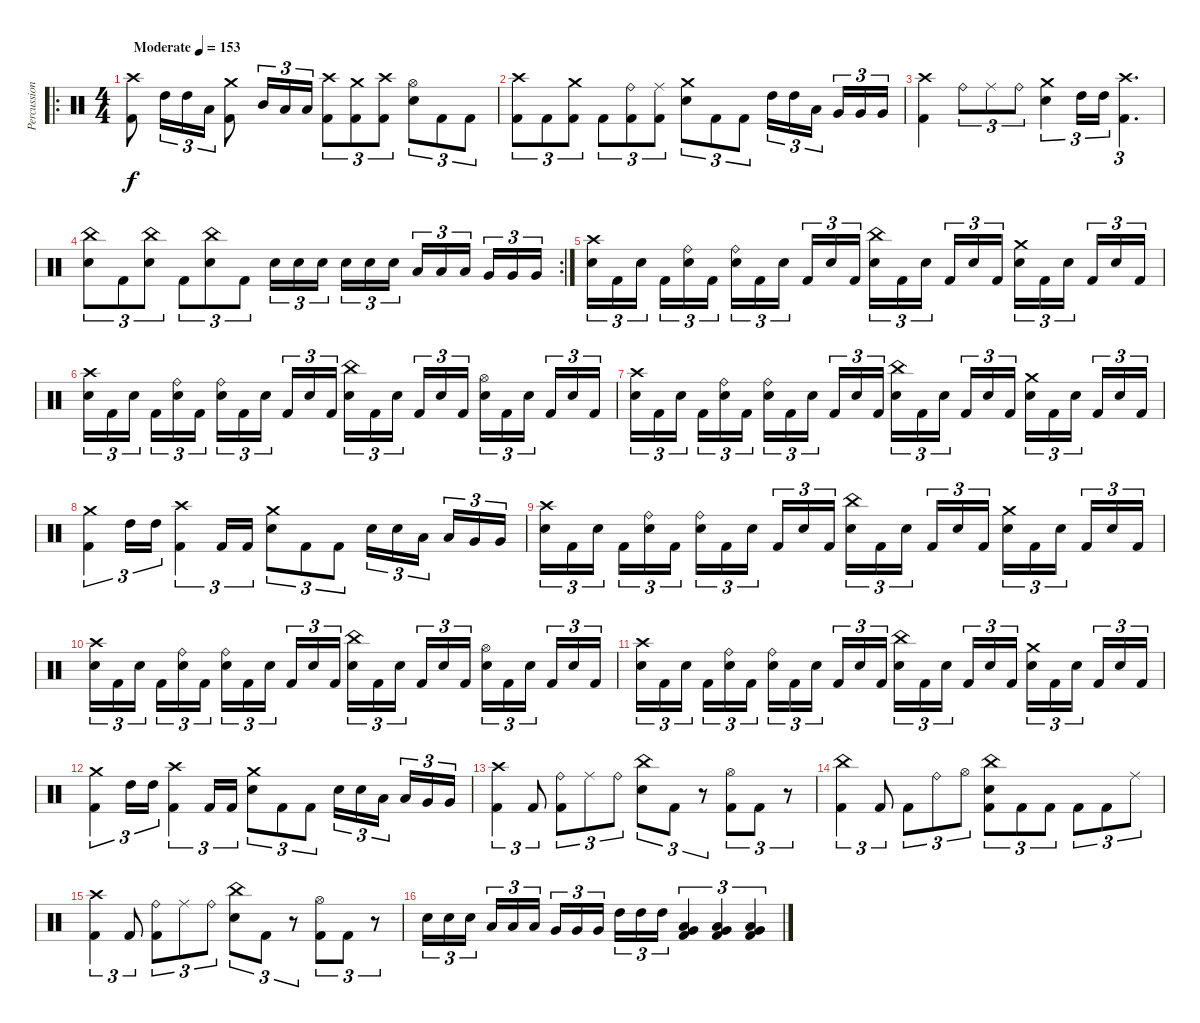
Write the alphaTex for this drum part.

\track ("Percussion" "Percussion") {instrument percussion}
\staff {score}
\articulation defaults
\ro
\ts (4 4)
\tempo (153 "Moderate")
\clef neutral
\ks c
("Crash high (hit)" "Kick (hit) 2").8{dy f} "High Tom (hit)".16{tu (3 2)} "High Tom (hit)".16{tu (3 2)} "Low Tom (hit)".16{tu (3 2)} ("Crash medium (hit)" "Kick (hit) 2").8 "Mid Tom (hit)".16{tu (3 2)} "Low Tom (hit)".16{tu (3 2)} "Low Tom (hit)".16{tu (3 2)} ("Crash high (hit)" "Kick (hit) 2").8{tu (3 2)} ("Crash medium (hit)" "Kick (hit) 2").8{tu (3 2)} ("Crash high (hit)" "Kick (hit) 2").8{tu (3 2)} ("Hi-Hat (open)" "Snare (hit) 2").8{tu (3 2)} "Kick (hit) 2".8{tu (3 2)} "Kick (hit) 2".8{tu (3 2)} |
("Crash high (hit)" "Kick (hit) 2").8{tu (3 2)} "Kick (hit) 2".8{tu (3 2)} ("Crash medium (hit)" "Kick (hit) 2").8{tu (3 2)} "Kick (hit) 2".8{tu (3 2)} ("Ride (bell)" "Kick (hit) 2").8{tu (3 2)} ("Ride (middle)" "Kick (hit) 2").8{tu (3 2)} ("Crash medium (hit)" "Snare (hit) 2").8{tu (3 2)} "Kick (hit) 2".8{tu (3 2)} "Kick (hit) 2".8{tu (3 2)} "High Tom (hit)".16{tu (3 2)} "High Tom (hit)".16{tu (3 2)} "Low Tom (hit)".16{tu (3 2) beam splitsecondary} "Very Low Tom (hit)".16{tu (3 2)} "Very Low Tom (hit)".16{tu (3 2)} "Very Low Tom (hit)".16{tu (3 2)} |
("Crash high (hit)" "Kick (hit) 2").4 "Ride (bell)".8{tu (3 2)} "Ride (middle)".8{tu (3 2)} "Ride (bell)".8{tu (3 2)} ("Crash medium (hit)" "Snare (hit) 2").4{tu (3 2)} "High Tom (hit)".16{tu (3 2)} "High Tom (hit)".16{tu (3 2)} ("Crash high (hit)" "Kick (hit) 2").4{d tu (3 2)} |
\rc 2
("China (hit)" "Snare (hit) 2").8{tu (3 2)} "Kick (hit) 2".8{tu (3 2)} ("China (hit)" "Snare (hit) 2").8{tu (3 2)} "Kick (hit) 2".8{tu (3 2)} ("China (hit)" "Snare (hit) 2").8{tu (3 2)} "Kick (hit) 2".8{tu (3 2)} "Snare (hit) 2".16{tu (3 2)} "Snare (hit) 2".16{tu (3 2)} "Snare (hit) 2".16{tu (3 2) beam splitsecondary} "Snare (hit) 2".16{tu (3 2)} "Snare (hit) 2".16{tu (3 2)} "Snare (hit) 2".16{tu (3 2)} "Low Tom (hit)".16{tu (3 2)} "Low Tom (hit)".16{tu (3 2)} "Low Tom (hit)".16{tu (3 2) beam splitsecondary} "Very Low Tom (hit)".16{tu (3 2)} "Very Low Tom (hit)".16{tu (3 2)} "Very Low Tom (hit)".16{tu (3 2)} |
("Crash high (hit)" "Snare (hit) 2").16{tu (3 2)} "Kick (hit) 2".16{tu (3 2)} "Snare (hit) 2".16{tu (3 2) beam splitsecondary} "Kick (hit) 2".16{tu (3 2)} ("Ride (bell)" "Snare (hit) 2").16{tu (3 2)} "Kick (hit) 2".16{tu (3 2)} ("Ride (bell)" "Snare (hit) 2").16{tu (3 2)} "Kick (hit) 2".16{tu (3 2)} "Snare (hit) 2".16{tu (3 2) beam splitsecondary} "Kick (hit) 2".16{tu (3 2)} "Snare (hit) 2".16{tu (3 2)} "Kick (hit) 2".16{tu (3 2)} ("China (hit)" "Snare (hit) 2").16{tu (3 2)} "Kick (hit) 2".16{tu (3 2)} "Snare (hit) 2".16{tu (3 2) beam splitsecondary} "Kick (hit) 2".16{tu (3 2)} "Snare (hit) 2".16{tu (3 2)} "Kick (hit) 2".16{tu (3 2)} ("Crash medium (hit)" "Snare (hit) 2").16{tu (3 2)} "Kick (hit) 2".16{tu (3 2)} "Snare (hit) 2".16{tu (3 2) beam splitsecondary} "Kick (hit) 2".16{tu (3 2)} "Snare (hit) 2".16{tu (3 2)} "Kick (hit) 2".16{tu (3 2)} |
("Crash high (hit)" "Snare (hit) 2").16{tu (3 2)} "Kick (hit) 2".16{tu (3 2)} "Snare (hit) 2".16{tu (3 2) beam splitsecondary} "Kick (hit) 2".16{tu (3 2)} ("Ride (bell)" "Snare (hit) 2").16{tu (3 2)} "Kick (hit) 2".16{tu (3 2)} ("Ride (bell)" "Snare (hit) 2").16{tu (3 2)} "Kick (hit) 2".16{tu (3 2)} "Snare (hit) 2".16{tu (3 2) beam splitsecondary} "Kick (hit) 2".16{tu (3 2)} "Snare (hit) 2".16{tu (3 2)} "Kick (hit) 2".16{tu (3 2)} ("China (hit)" "Snare (hit) 2").16{tu (3 2)} "Kick (hit) 2".16{tu (3 2)} "Snare (hit) 2".16{tu (3 2) beam splitsecondary} "Kick (hit) 2".16{tu (3 2)} "Snare (hit) 2".16{tu (3 2)} "Kick (hit) 2".16{tu (3 2)} ("Hi-Hat (open)" "Snare (hit) 2").16{tu (3 2)} "Kick (hit) 2".16{tu (3 2)} "Snare (hit) 2".16{tu (3 2) beam splitsecondary} "Kick (hit) 2".16{tu (3 2)} "Snare (hit) 2".16{tu (3 2)} "Kick (hit) 2".16{tu (3 2)} |
("Crash high (hit)" "Snare (hit) 2").16{tu (3 2)} "Kick (hit) 2".16{tu (3 2)} "Snare (hit) 2".16{tu (3 2) beam splitsecondary} "Kick (hit) 2".16{tu (3 2)} ("Ride (bell)" "Snare (hit) 2").16{tu (3 2)} "Kick (hit) 2".16{tu (3 2)} ("Ride (bell)" "Snare (hit) 2").16{tu (3 2)} "Kick (hit) 2".16{tu (3 2)} "Snare (hit) 2".16{tu (3 2) beam splitsecondary} "Kick (hit) 2".16{tu (3 2)} "Snare (hit) 2".16{tu (3 2)} "Kick (hit) 2".16{tu (3 2)} ("China (hit)" "Snare (hit) 2").16{tu (3 2)} "Kick (hit) 2".16{tu (3 2)} "Snare (hit) 2".16{tu (3 2) beam splitsecondary} "Kick (hit) 2".16{tu (3 2)} "Snare (hit) 2".16{tu (3 2)} "Kick (hit) 2".16{tu (3 2)} ("Crash medium (hit)" "Snare (hit) 2").16{tu (3 2)} "Kick (hit) 2".16{tu (3 2)} "Snare (hit) 2".16{tu (3 2) beam splitsecondary} "Kick (hit) 2".16{tu (3 2)} "Snare (hit) 2".16{tu (3 2)} "Kick (hit) 2".16{tu (3 2)} |
("Crash medium (hit)" "Kick (hit) 2").4{tu (3 2)} "High Tom (hit)".16{tu (3 2)} "High Tom (hit)".16{tu (3 2)} ("Crash high (hit)" "Kick (hit) 2").4{tu (3 2)} "Kick (hit) 2".16{tu (3 2)} "Kick (hit) 2".16{tu (3 2)} ("Crash medium (hit)" "Snare (hit) 2").8{tu (3 2)} "Kick (hit) 2".8{tu (3 2)} "Kick (hit) 2".8{tu (3 2)} "Snare (hit) 2".16{tu (3 2)} "Snare (hit) 2".16{tu (3 2)} "Low Tom (hit)".16{tu (3 2) beam splitsecondary} "Low Tom (hit)".16{tu (3 2)} "Very Low Tom (hit)".16{tu (3 2)} "Very Low Tom (hit)".16{tu (3 2)} |
("Crash high (hit)" "Snare (hit) 2").16{tu (3 2)} "Kick (hit) 2".16{tu (3 2)} "Snare (hit) 2".16{tu (3 2) beam splitsecondary} "Kick (hit) 2".16{tu (3 2)} ("Ride (bell)" "Snare (hit) 2").16{tu (3 2)} "Kick (hit) 2".16{tu (3 2)} ("Ride (bell)" "Snare (hit) 2").16{tu (3 2)} "Kick (hit) 2".16{tu (3 2)} "Snare (hit) 2".16{tu (3 2) beam splitsecondary} "Kick (hit) 2".16{tu (3 2)} "Snare (hit) 2".16{tu (3 2)} "Kick (hit) 2".16{tu (3 2)} ("China (hit)" "Snare (hit) 2").16{tu (3 2)} "Kick (hit) 2".16{tu (3 2)} "Snare (hit) 2".16{tu (3 2) beam splitsecondary} "Kick (hit) 2".16{tu (3 2)} "Snare (hit) 2".16{tu (3 2)} "Kick (hit) 2".16{tu (3 2)} ("Crash medium (hit)" "Snare (hit) 2").16{tu (3 2)} "Kick (hit) 2".16{tu (3 2)} "Snare (hit) 2".16{tu (3 2) beam splitsecondary} "Kick (hit) 2".16{tu (3 2)} "Snare (hit) 2".16{tu (3 2)} "Kick (hit) 2".16{tu (3 2)} |
("Crash high (hit)" "Snare (hit) 2").16{tu (3 2)} "Kick (hit) 2".16{tu (3 2)} "Snare (hit) 2".16{tu (3 2) beam splitsecondary} "Kick (hit) 2".16{tu (3 2)} ("Ride (bell)" "Snare (hit) 2").16{tu (3 2)} "Kick (hit) 2".16{tu (3 2)} ("Ride (bell)" "Snare (hit) 2").16{tu (3 2)} "Kick (hit) 2".16{tu (3 2)} "Snare (hit) 2".16{tu (3 2) beam splitsecondary} "Kick (hit) 2".16{tu (3 2)} "Snare (hit) 2".16{tu (3 2)} "Kick (hit) 2".16{tu (3 2)} ("China (hit)" "Snare (hit) 2").16{tu (3 2)} "Kick (hit) 2".16{tu (3 2)} "Snare (hit) 2".16{tu (3 2) beam splitsecondary} "Kick (hit) 2".16{tu (3 2)} "Snare (hit) 2".16{tu (3 2)} "Kick (hit) 2".16{tu (3 2)} ("Hi-Hat (open)" "Snare (hit) 2").16{tu (3 2)} "Kick (hit) 2".16{tu (3 2)} "Snare (hit) 2".16{tu (3 2) beam splitsecondary} "Kick (hit) 2".16{tu (3 2)} "Snare (hit) 2".16{tu (3 2)} "Kick (hit) 2".16{tu (3 2)} |
("Crash high (hit)" "Snare (hit) 2").16{tu (3 2)} "Kick (hit) 2".16{tu (3 2)} "Snare (hit) 2".16{tu (3 2) beam splitsecondary} "Kick (hit) 2".16{tu (3 2)} ("Ride (bell)" "Snare (hit) 2").16{tu (3 2)} "Kick (hit) 2".16{tu (3 2)} ("Ride (bell)" "Snare (hit) 2").16{tu (3 2)} "Kick (hit) 2".16{tu (3 2)} "Snare (hit) 2".16{tu (3 2) beam splitsecondary} "Kick (hit) 2".16{tu (3 2)} "Snare (hit) 2".16{tu (3 2)} "Kick (hit) 2".16{tu (3 2)} ("China (hit)" "Snare (hit) 2").16{tu (3 2)} "Kick (hit) 2".16{tu (3 2)} "Snare (hit) 2".16{tu (3 2) beam splitsecondary} "Kick (hit) 2".16{tu (3 2)} "Snare (hit) 2".16{tu (3 2)} "Kick (hit) 2".16{tu (3 2)} ("Crash medium (hit)" "Snare (hit) 2").16{tu (3 2)} "Kick (hit) 2".16{tu (3 2)} "Snare (hit) 2".16{tu (3 2) beam splitsecondary} "Kick (hit) 2".16{tu (3 2)} "Snare (hit) 2".16{tu (3 2)} "Kick (hit) 2".16{tu (3 2)} |
("Crash medium (hit)" "Kick (hit) 2").4{tu (3 2)} "High Tom (hit)".16{tu (3 2)} "High Tom (hit)".16{tu (3 2)} ("Crash high (hit)" "Kick (hit) 2").4{tu (3 2)} "Kick (hit) 2".16{tu (3 2)} "Kick (hit) 2".16{tu (3 2)} ("Crash medium (hit)" "Snare (hit) 2").8{tu (3 2)} "Kick (hit) 2".8{tu (3 2)} "Kick (hit) 2".8{tu (3 2)} "Snare (hit) 2".16{tu (3 2)} "Snare (hit) 2".16{tu (3 2)} "Low Tom (hit)".16{tu (3 2) beam splitsecondary} "Low Tom (hit)".16{tu (3 2)} "Very Low Tom (hit)".16{tu (3 2)} "Very Low Tom (hit)".16{tu (3 2)} |
("Crash high (hit)" "Kick (hit) 2").4{tu (3 2)} "Kick (hit) 2".8{tu (3 2)} ("Ride (bell)" "Kick (hit) 2").8{tu (3 2)} "Ride (middle)".8{tu (3 2)} "Ride (bell)".8{tu (3 2)} ("China (hit)" "Snare (hit) 2").8{tu (3 2)} "Kick (hit) 2".8{tu (3 2)} r.8{tu (3 2)} ("Hi-Hat (open)" "Kick (hit) 2").8{tu (3 2)} "Kick (hit) 2".8{tu (3 2)} r.8{tu (3 2)} |
("China (hit)" "Kick (hit) 2").4{tu (3 2)} "Kick (hit) 2".8{tu (3 2)} "Kick (hit) 2".8{tu (3 2)} "Ride (bell)".8{tu (3 2)} "Hi-Hat (open)".8{tu (3 2)} ("China (hit)" "Snare (hit) 2" "Kick (hit) 2").8{tu (3 2)} "Kick (hit) 2".8{tu (3 2)} "Kick (hit) 2".8{tu (3 2)} "Kick (hit) 2".8{tu (3 2)} "Kick (hit) 2".8{tu (3 2)} "Ride (middle)".8{tu (3 2)} |
("Crash high (hit)" "Kick (hit) 2").4{tu (3 2)} "Kick (hit) 2".8{tu (3 2)} ("Ride (bell)" "Kick (hit) 2").8{tu (3 2)} "Ride (middle)".8{tu (3 2)} "Ride (bell)".8{tu (3 2)} ("China (hit)" "Snare (hit) 2").8{tu (3 2)} "Kick (hit) 2".8{tu (3 2)} r.8{tu (3 2)} ("Hi-Hat (open)" "Kick (hit) 2").8{tu (3 2)} "Kick (hit) 2".8{tu (3 2)} r.8{tu (3 2)} |
"Snare (hit) 2".16{tu (3 2)} "Snare (hit) 2".16{tu (3 2)} "Snare (hit) 2".16{tu (3 2) beam splitsecondary} "Low Tom (hit)".16{tu (3 2)} "Low Tom (hit)".16{tu (3 2)} "Low Tom (hit)".16{tu (3 2)} "Very Low Tom (hit)".16{tu (3 2)} "Very Low Tom (hit)".16{tu (3 2)} "Very Low Tom (hit)".16{tu (3 2) beam splitsecondary} "High Tom (hit)".16{tu (3 2)} "High Tom (hit)".16{tu (3 2)} "High Tom (hit)".16{tu (3 2)} ("Low Floor Tom (hit)" "Very Low Tom (hit)" "Kick (hit) 2").4{tu (3 2)} ("Low Floor Tom (hit)" "Very Low Tom (hit)" "Kick (hit) 2").4{tu (3 2)} ("Low Floor Tom (hit)" "Very Low Tom (hit)" "Kick (hit) 2").4{tu (3 2)}
